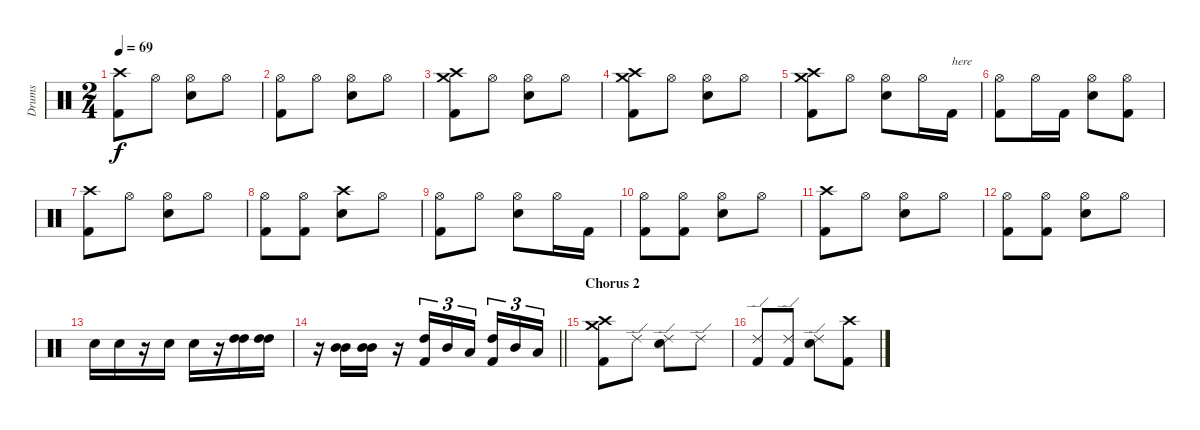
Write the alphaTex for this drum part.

\track ("Drums" "Drums") {instrument percussion}
\staff {score}
\articulation defaults
\ts (2 4)
\tempo 69
\clef neutral
\ks c
("Kick (hit) 2" "Crash high (hit)").8{dy f} "Hi-Hat (open)".8 ("Electric Snare (hit)" "Hi-Hat (open)").8 "Hi-Hat (open)".8 |
("Kick (hit) 2" "Hi-Hat (open)").8 "Hi-Hat (open)".8 ("Electric Snare (hit)" "Hi-Hat (open)").8 "Hi-Hat (open)".8 |
("Kick (hit) 2" "Crash high (hit)" "Crash medium (hit)").8 "Hi-Hat (open)".8 ("Electric Snare (hit)" "Hi-Hat (open)").8 "Hi-Hat (open)".8 |
("Kick (hit) 2" "Crash high (hit)" "Crash medium (hit)").8 "Hi-Hat (open)".8 ("Electric Snare (hit)" "Hi-Hat (open)").8 "Hi-Hat (open)".8 |
("Kick (hit) 2" "Crash high (hit)" "Crash medium (hit)").8 "Hi-Hat (open)".8 ("Electric Snare (hit)" "Hi-Hat (open)").8 "Hi-Hat (open)".16 "Kick (hit) 2".16{txt "here"} |
("Kick (hit) 2" "Hi-Hat (open)").8 "Hi-Hat (open)".16 "Kick (hit) 2".16 ("Electric Snare (hit)" "Hi-Hat (open)").8 ("Kick (hit) 2" "Hi-Hat (open)").8 |
("Kick (hit) 2" "Crash high (hit)").8 "Hi-Hat (open)".8 ("Electric Snare (hit)" "Hi-Hat (open)").8 "Hi-Hat (open)".8 |
("Kick (hit) 2" "Hi-Hat (open)").8 ("Kick (hit) 2" "Hi-Hat (open)").8 ("Electric Snare (hit)" "Crash high (hit)").8 "Hi-Hat (open)".8 |
("Kick (hit) 2" "Hi-Hat (open)").8 "Hi-Hat (open)".8 ("Electric Snare (hit)" "Hi-Hat (open)").8 "Hi-Hat (open)".16 "Kick (hit) 2".16 |
("Kick (hit) 2" "Hi-Hat (open)").8 ("Kick (hit) 2" "Hi-Hat (open)").8 ("Electric Snare (hit)" "Hi-Hat (open)").8 "Hi-Hat (open)".8 |
("Kick (hit) 2" "Crash high (hit)").8 "Hi-Hat (open)".8 ("Electric Snare (hit)" "Hi-Hat (open)").8 "Hi-Hat (open)".8 |
("Kick (hit) 2" "Hi-Hat (open)").8 ("Kick (hit) 2" "Hi-Hat (open)").8 ("Electric Snare (hit)" "Hi-Hat (open)").8 "Hi-Hat (open)".8 |
"Electric Snare (hit)".16 "Electric Snare (hit)".16 r.16 "Electric Snare (hit)".16 "Electric Snare (hit)".16 r.16 ("High Tom (hit)" "High Tom (hit)").16 ("High Tom (hit)" "High Tom (hit)").16 |
\barLineRight lightlight
r.16 ("Mid Tom (hit)" "Mid Tom (hit)").16 ("Mid Tom (hit)" "Mid Tom (hit)").16 r.16 ("Kick (hit) 2" "High Tom (hit)").16{tu (3 2)} "Mid Tom (hit)".16{tu (3 2)} "Low Tom (hit)".16{tu (3 2) beam splitsecondary} ("Kick (hit) 2" "High Tom (hit)").16{tu (3 2)} "Mid Tom (hit)".16{tu (3 2)} "Low Tom (hit)".16{tu (3 2)} |
\section ("" "Chorus 2")
("Kick (hit) 2" "Crash high (hit)" "Crash medium (hit)").8 "Ride (edge) 2".8 ("Electric Snare (hit)" "Ride (edge) 2").8 "Ride (edge) 2".8 |
("Kick (hit) 2" "Ride (edge) 2").8 ("Kick (hit) 2" "Ride (edge) 2").8 ("Electric Snare (hit)" "Ride (edge) 2").8 ("Kick (hit) 2" "Crash high (hit)").8
